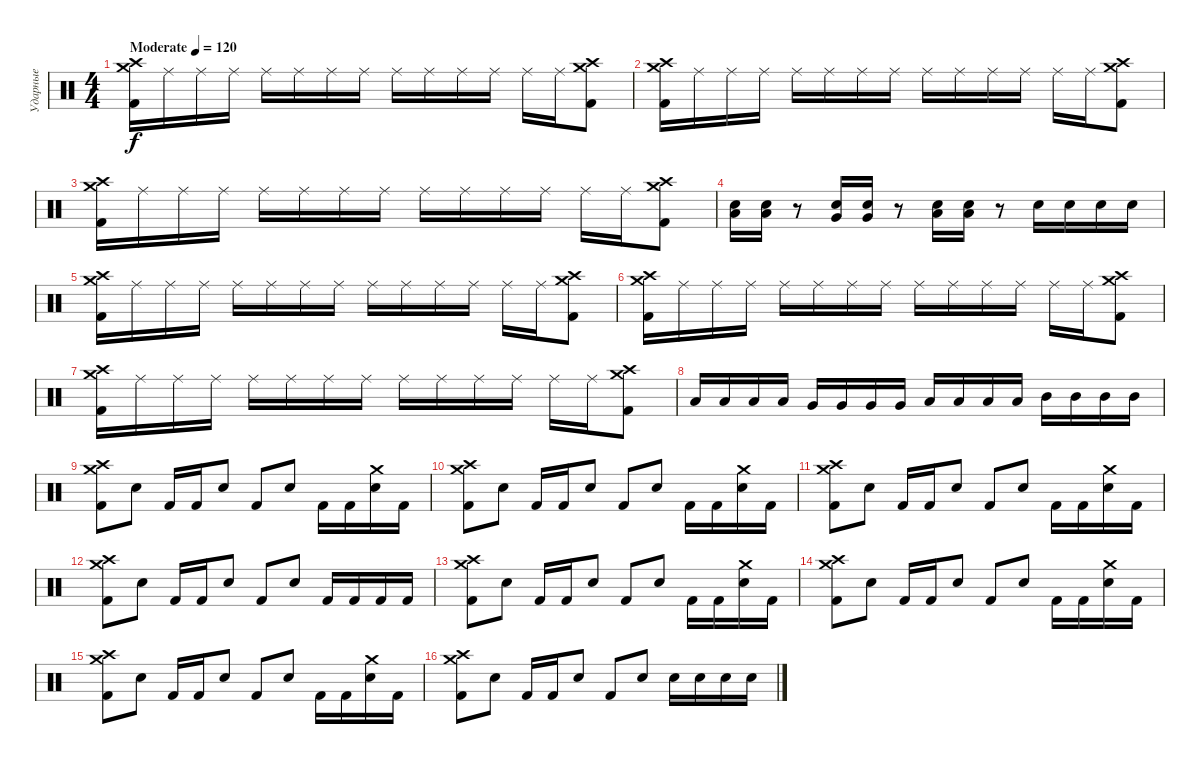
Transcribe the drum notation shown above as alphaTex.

\track ("Ударные" "Ударные") {instrument percussion}
\staff {score}
\articulation defaults
\ts (4 4)
\tempo (120 "Moderate")
\clef neutral
\ks c
("Kick (hit) 2" "Crash medium (hit)" "Crash high (hit)").16{dy f} "Ride (middle)".16 "Ride (middle)".16 "Ride (middle)".16 "Ride (middle)".16 "Ride (middle)".16 "Ride (middle)".16 "Ride (middle)".16 "Ride (middle)".16 "Ride (middle)".16 "Ride (middle)".16 "Ride (middle)".16 "Ride (middle)".16 "Ride (middle)".16 ("Kick (hit) 2" "Crash medium (hit)" "Crash high (hit)").8 |
("Kick (hit) 2" "Crash medium (hit)" "Crash high (hit)").16 "Ride (middle)".16 "Ride (middle)".16 "Ride (middle)".16 "Ride (middle)".16 "Ride (middle)".16 "Ride (middle)".16 "Ride (middle)".16 "Ride (middle)".16 "Ride (middle)".16 "Ride (middle)".16 "Ride (middle)".16 "Ride (middle)".16 "Ride (middle)".16 ("Kick (hit) 2" "Crash medium (hit)" "Crash high (hit)").8 |
("Kick (hit) 2" "Crash medium (hit)" "Crash high (hit)").16 "Ride (middle)".16 "Ride (middle)".16 "Ride (middle)".16 "Ride (middle)".16 "Ride (middle)".16 "Ride (middle)".16 "Ride (middle)".16 "Ride (middle)".16 "Ride (middle)".16 "Ride (middle)".16 "Ride (middle)".16 "Ride (middle)".16 "Ride (middle)".16 ("Kick (hit) 2" "Crash medium (hit)" "Crash high (hit)").8 |
("Low Floor Tom (hit)" "Electric Snare (hit)").16 ("Low Floor Tom (hit)" "Electric Snare (hit)").16 r.8 ("Very Low Tom (hit)" "Electric Snare (hit)").16 ("Very Low Tom (hit)" "Electric Snare (hit)").16 r.8 ("Low Floor Tom (hit)" "Electric Snare (hit)").16 ("Low Floor Tom (hit)" "Electric Snare (hit)").16 r.8 "Snare (hit) 2".16 "Snare (hit) 2".16 "Snare (hit) 2".16 "Snare (hit) 2".16 |
("Kick (hit) 2" "Crash medium (hit)" "Crash high (hit)").16 "Ride (middle)".16 "Ride (middle)".16 "Ride (middle)".16 "Ride (middle)".16 "Ride (middle)".16 "Ride (middle)".16 "Ride (middle)".16 "Ride (middle)".16 "Ride (middle)".16 "Ride (middle)".16 "Ride (middle)".16 "Ride (middle)".16 "Ride (middle)".16 ("Kick (hit) 2" "Crash medium (hit)" "Crash high (hit)").8 |
("Kick (hit) 2" "Crash medium (hit)" "Crash high (hit)").16 "Ride (middle)".16 "Ride (middle)".16 "Ride (middle)".16 "Ride (middle)".16 "Ride (middle)".16 "Ride (middle)".16 "Ride (middle)".16 "Ride (middle)".16 "Ride (middle)".16 "Ride (middle)".16 "Ride (middle)".16 "Ride (middle)".16 "Ride (middle)".16 ("Kick (hit) 2" "Crash medium (hit)" "Crash high (hit)").8 |
("Kick (hit) 2" "Crash medium (hit)" "Crash high (hit)").16 "Ride (middle)".16 "Ride (middle)".16 "Ride (middle)".16 "Ride (middle)".16 "Ride (middle)".16 "Ride (middle)".16 "Ride (middle)".16 "Ride (middle)".16 "Ride (middle)".16 "Ride (middle)".16 "Ride (middle)".16 "Ride (middle)".16 "Ride (middle)".16 ("Kick (hit) 2" "Crash medium (hit)" "Crash high (hit)").8 |
"Low Floor Tom (hit)".16 "Low Floor Tom (hit)".16 "Low Floor Tom (hit)".16 "Low Floor Tom (hit)".16 "Very Low Tom (hit)".16 "Very Low Tom (hit)".16 "Very Low Tom (hit)".16 "Very Low Tom (hit)".16 "Low Tom (hit)".16 "Low Tom (hit)".16 "Low Tom (hit)".16 "Low Tom (hit)".16 "Mid Tom (hit)".16 "Mid Tom (hit)".16 "Mid Tom (hit)".16 "Mid Tom (hit)".16 |
("Kick (hit) 2" "Crash medium (hit)" "Crash high (hit)").8 "Snare (hit) 2".8 "Kick (hit) 2".16 "Kick (hit) 2".16 "Snare (hit) 2".8 "Kick (hit) 2".8 "Snare (hit) 2".8 "Kick (hit) 2".16 "Kick (hit) 2".16 ("Snare (hit) 2" "Crash medium (hit)").16 "Kick (hit) 2".16 |
("Kick (hit) 2" "Crash medium (hit)" "Crash high (hit)").8 "Snare (hit) 2".8 "Kick (hit) 2".16 "Kick (hit) 2".16 "Snare (hit) 2".8 "Kick (hit) 2".8 "Snare (hit) 2".8 "Kick (hit) 2".16 "Kick (hit) 2".16 ("Snare (hit) 2" "Crash medium (hit)").16 "Kick (hit) 2".16 |
("Kick (hit) 2" "Crash medium (hit)" "Crash high (hit)").8 "Snare (hit) 2".8 "Kick (hit) 2".16 "Kick (hit) 2".16 "Snare (hit) 2".8 "Kick (hit) 2".8 "Snare (hit) 2".8 "Kick (hit) 2".16 "Kick (hit) 2".16 ("Snare (hit) 2" "Crash medium (hit)").16 "Kick (hit) 2".16 |
("Kick (hit) 2" "Crash medium (hit)" "Crash high (hit)").8 "Snare (hit) 2".8 "Kick (hit) 2".16 "Kick (hit) 2".16 "Snare (hit) 2".8 "Kick (hit) 2".8 "Snare (hit) 2".8 "Kick (hit) 2".16 "Kick (hit) 2".16 "Kick (hit) 2".16 "Kick (hit) 2".16 |
("Kick (hit) 2" "Crash medium (hit)" "Crash high (hit)").8 "Snare (hit) 2".8 "Kick (hit) 2".16 "Kick (hit) 2".16 "Snare (hit) 2".8 "Kick (hit) 2".8 "Snare (hit) 2".8 "Kick (hit) 2".16 "Kick (hit) 2".16 ("Snare (hit) 2" "Crash medium (hit)").16 "Kick (hit) 2".16 |
("Kick (hit) 2" "Crash medium (hit)" "Crash high (hit)").8 "Snare (hit) 2".8 "Kick (hit) 2".16 "Kick (hit) 2".16 "Snare (hit) 2".8 "Kick (hit) 2".8 "Snare (hit) 2".8 "Kick (hit) 2".16 "Kick (hit) 2".16 ("Snare (hit) 2" "Crash medium (hit)").16 "Kick (hit) 2".16 |
("Kick (hit) 2" "Crash medium (hit)" "Crash high (hit)").8 "Snare (hit) 2".8 "Kick (hit) 2".16 "Kick (hit) 2".16 "Snare (hit) 2".8 "Kick (hit) 2".8 "Snare (hit) 2".8 "Kick (hit) 2".16 "Kick (hit) 2".16 ("Snare (hit) 2" "Crash medium (hit)").16 "Kick (hit) 2".16 |
("Kick (hit) 2" "Crash medium (hit)" "Crash high (hit)").8 "Snare (hit) 2".8 "Kick (hit) 2".16 "Kick (hit) 2".16 "Snare (hit) 2".8 "Kick (hit) 2".8 "Snare (hit) 2".8 "Snare (hit) 2".16 "Snare (hit) 2".16 "Snare (hit) 2".16 "Snare (hit) 2".16
